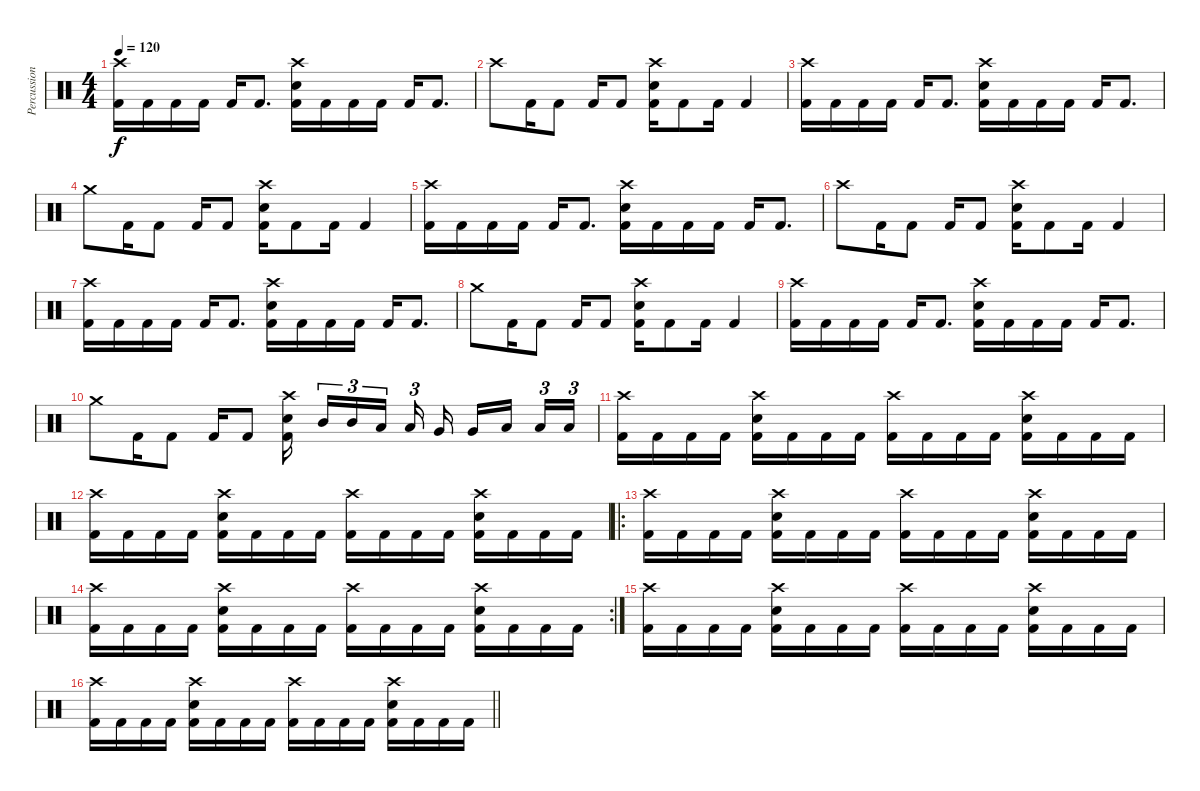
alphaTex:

\track ("Percussion" "Percussion") {instrument percussion}
\staff {score}
\articulation defaults
\ts (4 4)
\tempo 120
\clef neutral
\ks c
("Crash high (hit)" "Kick (hit) 2").16{dy f} "Kick (hit) 2".16 "Kick (hit) 2".16 "Kick (hit) 2".16 "Kick (hit) 2".16 "Kick (hit) 2".8{d} ("Crash high (hit)" "Snare (hit) 2" "Kick (hit) 2").16 "Kick (hit) 2".16 "Kick (hit) 2".16 "Kick (hit) 2".16 "Kick (hit) 2".16 "Kick (hit) 2".8{d} |
"Crash high (hit)".8 "Kick (hit) 2".16 "Kick (hit) 2".8 "Kick (hit) 2".16 "Kick (hit) 2".8 ("Crash high (hit)" "Snare (hit) 2" "Kick (hit) 2").16 "Kick (hit) 2".8 "Kick (hit) 2".16 "Kick (hit) 2".4 |
("Crash high (hit)" "Kick (hit) 2").16 "Kick (hit) 2".16 "Kick (hit) 2".16 "Kick (hit) 2".16 "Kick (hit) 2".16 "Kick (hit) 2".8{d} ("Crash high (hit)" "Snare (hit) 2" "Kick (hit) 2").16 "Kick (hit) 2".16 "Kick (hit) 2".16 "Kick (hit) 2".16 "Kick (hit) 2".16 "Kick (hit) 2".8{d} |
"Crash medium (hit)".8 "Kick (hit) 2".16 "Kick (hit) 2".8 "Kick (hit) 2".16 "Kick (hit) 2".8 ("Crash high (hit)" "Snare (hit) 2" "Kick (hit) 2").16 "Kick (hit) 2".8 "Kick (hit) 2".16 "Kick (hit) 2".4 |
("Crash high (hit)" "Kick (hit) 2").16 "Kick (hit) 2".16 "Kick (hit) 2".16 "Kick (hit) 2".16 "Kick (hit) 2".16 "Kick (hit) 2".8{d} ("Crash high (hit)" "Snare (hit) 2" "Kick (hit) 2").16 "Kick (hit) 2".16 "Kick (hit) 2".16 "Kick (hit) 2".16 "Kick (hit) 2".16 "Kick (hit) 2".8{d} |
"Crash high (hit)".8 "Kick (hit) 2".16 "Kick (hit) 2".8 "Kick (hit) 2".16 "Kick (hit) 2".8 ("Crash high (hit)" "Snare (hit) 2" "Kick (hit) 2").16 "Kick (hit) 2".8 "Kick (hit) 2".16 "Kick (hit) 2".4 |
("Crash high (hit)" "Kick (hit) 2").16 "Kick (hit) 2".16 "Kick (hit) 2".16 "Kick (hit) 2".16 "Kick (hit) 2".16 "Kick (hit) 2".8{d} ("Crash high (hit)" "Snare (hit) 2" "Kick (hit) 2").16 "Kick (hit) 2".16 "Kick (hit) 2".16 "Kick (hit) 2".16 "Kick (hit) 2".16 "Kick (hit) 2".8{d} |
"Crash medium (hit)".8 "Kick (hit) 2".16 "Kick (hit) 2".8 "Kick (hit) 2".16 "Kick (hit) 2".8 ("Crash high (hit)" "Snare (hit) 2" "Kick (hit) 2").16 "Kick (hit) 2".8 "Kick (hit) 2".16 "Kick (hit) 2".4 |
("Crash high (hit)" "Kick (hit) 2").16 "Kick (hit) 2".16 "Kick (hit) 2".16 "Kick (hit) 2".16 "Kick (hit) 2".16 "Kick (hit) 2".8{d} ("Crash high (hit)" "Snare (hit) 2" "Kick (hit) 2").16 "Kick (hit) 2".16 "Kick (hit) 2".16 "Kick (hit) 2".16 "Kick (hit) 2".16 "Kick (hit) 2".8{d} |
"Crash medium (hit)".8 "Kick (hit) 2".16 "Kick (hit) 2".8 "Kick (hit) 2".16 "Kick (hit) 2".8 ("Crash high (hit)" "Snare (hit) 2" "Kick (hit) 2").16{beam splitsecondary} "Mid Tom (hit)".16{tu (3 2)} "Mid Tom (hit)".16{tu (3 2)} "Low Tom (hit)".16{tu (3 2) beam splitsecondary} "Low Tom (hit)".16{tu (3 2)} "Very Low Tom (hit)".16 "Very Low Tom (hit)".16 "Low Floor Tom (hit)".16{beam splitsecondary} "Low Floor Tom (hit)".16{tu (3 2)} "Low Floor Tom (hit)".16{tu (3 2)} |
("Crash high (hit)" "Kick (hit) 2").16 "Kick (hit) 2".16 "Kick (hit) 2".16 "Kick (hit) 2".16 ("Crash high (hit)" "Snare (hit) 2" "Kick (hit) 2").16 "Kick (hit) 2".16 "Kick (hit) 2".16 "Kick (hit) 2".16 ("Crash high (hit)" "Kick (hit) 2").16 "Kick (hit) 2".16 "Kick (hit) 2".16 "Kick (hit) 2".16 ("Crash high (hit)" "Snare (hit) 2" "Kick (hit) 2").16 "Kick (hit) 2".16 "Kick (hit) 2".16 "Kick (hit) 2".16 |
("Crash high (hit)" "Kick (hit) 2").16 "Kick (hit) 2".16 "Kick (hit) 2".16 "Kick (hit) 2".16 ("Crash high (hit)" "Snare (hit) 2" "Kick (hit) 2").16 "Kick (hit) 2".16 "Kick (hit) 2".16 "Kick (hit) 2".16 ("Crash high (hit)" "Kick (hit) 2").16 "Kick (hit) 2".16 "Kick (hit) 2".16 "Kick (hit) 2".16 ("Crash high (hit)" "Snare (hit) 2" "Kick (hit) 2").16 "Kick (hit) 2".16 "Kick (hit) 2".16 "Kick (hit) 2".16 |
\ro
("Crash high (hit)" "Kick (hit) 2").16 "Kick (hit) 2".16 "Kick (hit) 2".16 "Kick (hit) 2".16 ("Crash high (hit)" "Snare (hit) 2" "Kick (hit) 2").16 "Kick (hit) 2".16 "Kick (hit) 2".16 "Kick (hit) 2".16 ("Crash high (hit)" "Kick (hit) 2").16 "Kick (hit) 2".16 "Kick (hit) 2".16 "Kick (hit) 2".16 ("Crash high (hit)" "Snare (hit) 2" "Kick (hit) 2").16 "Kick (hit) 2".16 "Kick (hit) 2".16 "Kick (hit) 2".16 |
\rc 2
("Crash high (hit)" "Kick (hit) 2").16 "Kick (hit) 2".16 "Kick (hit) 2".16 "Kick (hit) 2".16 ("Crash high (hit)" "Snare (hit) 2" "Kick (hit) 2").16 "Kick (hit) 2".16 "Kick (hit) 2".16 "Kick (hit) 2".16 ("Crash high (hit)" "Kick (hit) 2").16 "Kick (hit) 2".16 "Kick (hit) 2".16 "Kick (hit) 2".16 ("Crash high (hit)" "Snare (hit) 2" "Kick (hit) 2").16 "Kick (hit) 2".16 "Kick (hit) 2".16 "Kick (hit) 2".16 |
("Crash high (hit)" "Kick (hit) 2").16 "Kick (hit) 2".16 "Kick (hit) 2".16 "Kick (hit) 2".16 ("Crash high (hit)" "Snare (hit) 2" "Kick (hit) 2").16 "Kick (hit) 2".16 "Kick (hit) 2".16 "Kick (hit) 2".16 ("Crash high (hit)" "Kick (hit) 2").16 "Kick (hit) 2".16 "Kick (hit) 2".16 "Kick (hit) 2".16 ("Crash high (hit)" "Snare (hit) 2" "Kick (hit) 2").16 "Kick (hit) 2".16 "Kick (hit) 2".16 "Kick (hit) 2".16 |
\barLineRight lightlight
("Crash high (hit)" "Kick (hit) 2").16 "Kick (hit) 2".16 "Kick (hit) 2".16 "Kick (hit) 2".16 ("Crash high (hit)" "Snare (hit) 2" "Kick (hit) 2").16 "Kick (hit) 2".16 "Kick (hit) 2".16 "Kick (hit) 2".16 ("Crash high (hit)" "Kick (hit) 2").16 "Kick (hit) 2".16 "Kick (hit) 2".16 "Kick (hit) 2".16 ("Crash high (hit)" "Snare (hit) 2" "Kick (hit) 2").16 "Kick (hit) 2".16 "Kick (hit) 2".16 "Kick (hit) 2".16
